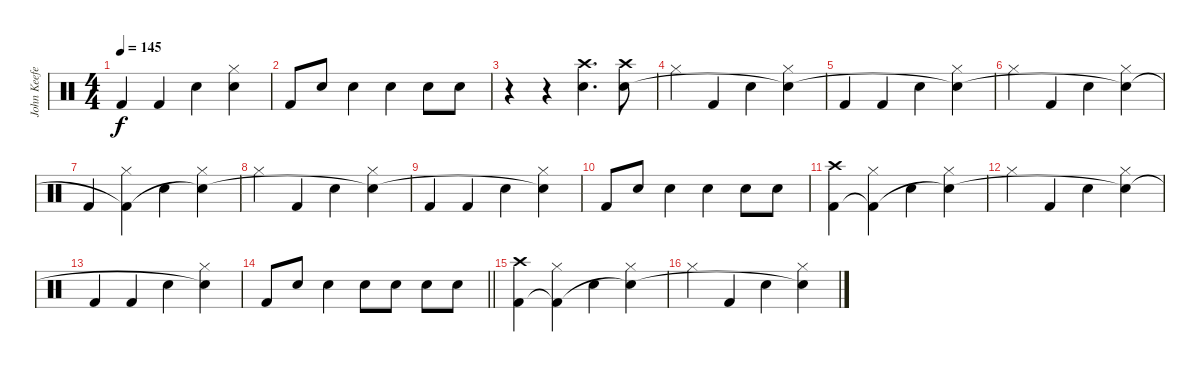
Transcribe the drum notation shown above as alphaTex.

\track ("John Keefe (Percussion)" "John Keefe") {instrument percussion}
\staff {score}
\articulation defaults
\ts (4 4)
\tempo 145
\clef neutral
\ks c "Kick (hit) 2".4{dy f} "Kick (hit) 2".4 "Snare (hit) 2".4
("Hi-Hat (closed)" "Snare (hit) 2"{t}).4 |
"Kick (hit) 2".8 "Snare (hit) 2".8 "Snare (hit) 2".4 "Snare (hit) 2".4 "Snare (hit) 2".8 "Snare (hit) 2".8 |
r.4 r.4 ("Crash high (hit)" "Snare (hit) 2").4{d} ("Crash high (hit)" "Snare (hit) 2").8 |
"Hi-Hat (closed)".4 "Kick (hit) 2".4 "Snare (hit) 2".4 ("Hi-Hat (closed)" "Snare (hit) 2"{t}).4 |
"Kick (hit) 2".4 "Kick (hit) 2".4 "Snare (hit) 2".4 ("Hi-Hat (closed)" "Snare (hit) 2"{t}).4 |
"Hi-Hat (closed)".4 "Kick (hit) 2".4 "Snare (hit) 2".4 ("Hi-Hat (closed)" "Snare (hit) 2"{t}).4 |
"Kick (hit) 2".4 ("Hi-Hat (closed)" "Kick (hit) 2"{t}).4 "Snare (hit) 2".4 ("Hi-Hat (closed)" "Snare (hit) 2"{t}).4 |
"Hi-Hat (closed)".4 "Kick (hit) 2".4 "Snare (hit) 2".4 ("Hi-Hat (closed)" "Snare (hit) 2"{t}).4 |
"Kick (hit) 2".4 "Kick (hit) 2".4 "Snare (hit) 2".4 ("Hi-Hat (closed)" "Snare (hit) 2"{t}).4 |
"Kick (hit) 2".8 "Snare (hit) 2".8 "Snare (hit) 2".4 "Snare (hit) 2".4 "Snare (hit) 2".8 "Snare (hit) 2".8 |
("Crash high (hit)" "Kick (hit) 2").4 ("Hi-Hat (closed)" "Kick (hit) 2"{t}).4 "Snare (hit) 2".4 ("Hi-Hat (closed)" "Snare (hit) 2"{t}).4 |
"Hi-Hat (closed)".4 "Kick (hit) 2".4 "Snare (hit) 2".4 ("Hi-Hat (closed)" "Snare (hit) 2"{t}).4 |
"Kick (hit) 2".4 "Kick (hit) 2".4 "Snare (hit) 2".4 ("Hi-Hat (closed)" "Snare (hit) 2"{t}).4 |
\barLineRight lightlight "Kick (hit) 2".8 "Snare (hit) 2".8 "Snare (hit) 2".4 "Snare (hit) 2".8 "Snare (hit) 2".8 "Snare (hit) 2".8 "Snare (hit) 2".8
|
("Crash high (hit)" "Kick (hit) 2").4 ("Hi-Hat (closed)" "Kick (hit) 2"{t}).4 "Snare (hit) 2".4 ("Hi-Hat (closed)" "Snare (hit) 2"{t}).4 |
"Hi-Hat (closed)".4 "Kick (hit) 2".4 "Snare (hit) 2".4 ("Hi-Hat (closed)" "Snare (hit) 2"{t}).4
